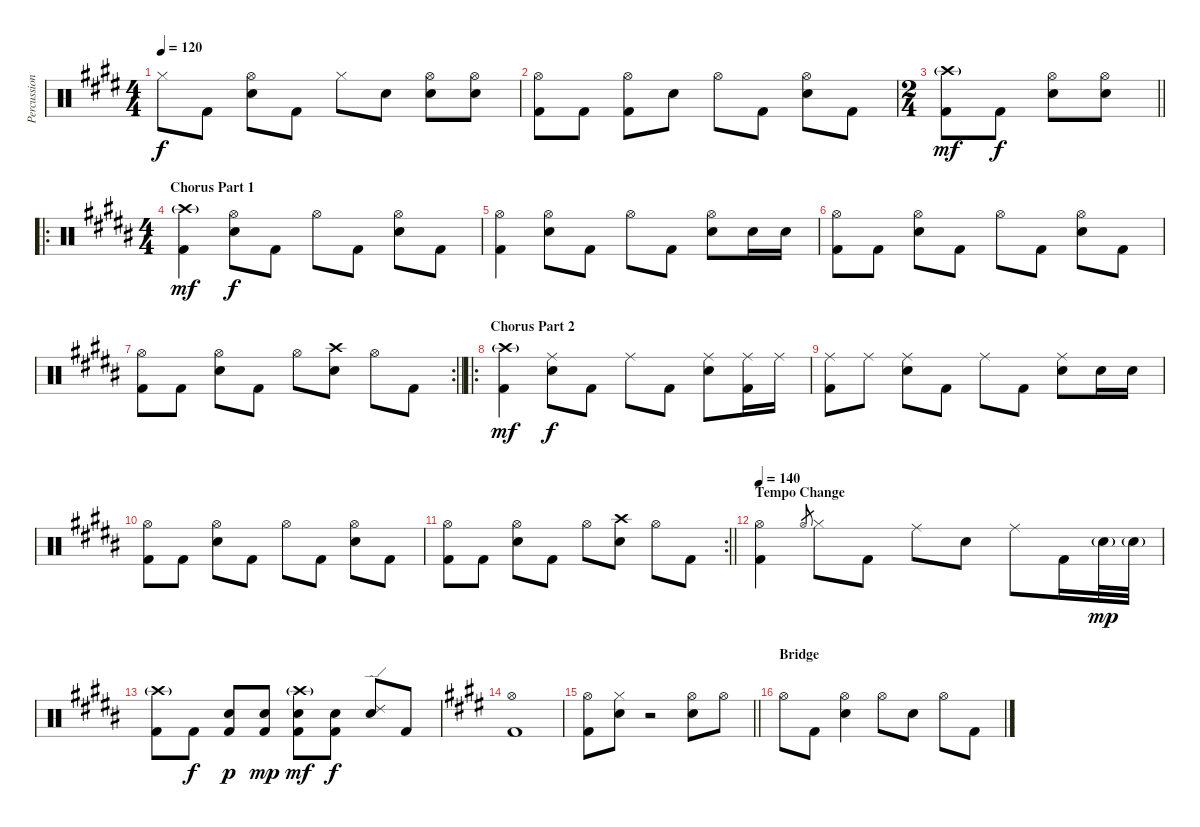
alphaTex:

\track ("Percussion" "Percussion") {instrument percussion}
\staff {score}
\articulation defaults
\ts (4 4)
\tempo 120
\clef neutral
\ks e "Hi-Hat (closed)".8{dy f} "Kick (hit) 2".8
("Hi-Hat (open)" "Snare (hit) 2").8 "Kick (hit) 2".8 "Hi-Hat (closed)".8 "Snare (hit) 2".8 ("Hi-Hat (open)" "Snare (hit) 2").8 ("Hi-Hat (open)" "Snare (hit) 2").8 |
("Hi-Hat (open)" "Kick (hit) 2").8 "Kick (hit) 2".8 ("Hi-Hat (open)" "Kick (hit) 2").8 "Snare (hit) 2".8 "Hi-Hat (open)".8 "Kick (hit) 2".8 ("Hi-Hat (open)" "Snare (hit) 2").8 "Kick (hit) 2".8 |
\ts (2 4)
\barLineRight lightlight
("Crash high (hit)"{g} "Kick (hit) 2").8{dy mf} "Kick (hit) 2".8{dy f} ("Hi-Hat (open)" "Snare (hit) 2").8 ("Hi-Hat (open)" "Snare (hit) 2").8 |
\ro
\ts (4 4)
\section ("" "Chorus Part 1")
\ks b
("Crash high (hit)"{g} "Kick (hit) 2").4{dy mf} ("Hi-Hat (open)" "Snare (hit) 2").8{dy f} "Kick (hit) 2".8 "Hi-Hat (open)".8 "Kick (hit) 2".8 ("Hi-Hat (open)" "Snare (hit) 2").8 "Kick (hit) 2".8 |
("Hi-Hat (open)" "Kick (hit) 2").4 ("Hi-Hat (open)" "Snare (hit) 2").8 "Kick (hit) 2".8 "Hi-Hat (open)".8 "Kick (hit) 2".8 ("Hi-Hat (open)" "Snare (hit) 2").8 "Snare (hit) 2".16 "Snare (hit) 2".16 |
("Hi-Hat (open)" "Kick (hit) 2").8 "Kick (hit) 2".8 ("Hi-Hat (open)" "Snare (hit) 2").8 "Kick (hit) 2".8 "Hi-Hat (open)".8 "Kick (hit) 2".8 ("Hi-Hat (open)" "Snare (hit) 2").8 "Kick (hit) 2".8 |
\rc 2
\barLineRight lightlight
("Hi-Hat (open)" "Kick (hit) 2").8 "Kick (hit) 2".8 ("Hi-Hat (open)" "Snare (hit) 2").8 "Kick (hit) 2".8 "Hi-Hat (open)".8 ("Crash high (hit)" "Snare (hit) 2").8 "Hi-Hat (open)".8 "Kick (hit) 2".8 |
\ro
\section ("" "Chorus Part 2")
("Crash high (hit)"{g} "Kick (hit) 2").4{dy mf} ("Ride (middle)" "Snare (hit) 2").8{dy f} "Kick (hit) 2".8 "Ride (middle)".8 "Kick (hit) 2".8 ("Ride (middle)" "Snare (hit) 2").8 ("Ride (middle)" "Kick (hit) 2").16 "Ride (middle)".16 |
("Ride (middle)" "Kick (hit) 2").8 "Ride (middle)".8 ("Ride (middle)" "Snare (hit) 2").8 "Kick (hit) 2".8 "Ride (middle)".8 "Kick (hit) 2".8 ("Ride (middle)" "Snare (hit) 2").8 "Snare (hit) 2".16 "Snare (hit) 2".16 |
("Hi-Hat (open)" "Kick (hit) 2").8 "Kick (hit) 2".8 ("Hi-Hat (open)" "Snare (hit) 2").8 "Kick (hit) 2".8 "Hi-Hat (open)".8 "Kick (hit) 2".8 ("Hi-Hat (open)" "Snare (hit) 2").8 "Kick (hit) 2".8 |
\rc 2
\barLineRight lightlight
("Hi-Hat (open)" "Kick (hit) 2").8 "Kick (hit) 2".8 ("Hi-Hat (open)" "Snare (hit) 2").8 "Kick (hit) 2".8 "Hi-Hat (open)".8 ("Crash high (hit)" "Snare (hit) 2").8 "Hi-Hat (open)".8 "Kick (hit) 2".8 |
\section ("" "Tempo Change")
\tempo 140
("Hi-Hat (open)" "Kick (hit) 2").4 "Hi-Hat (open)".8{gr} "Hi-Hat (closed)".8 "Kick (hit) 2".8 "Ride (middle)".8 "Snare (hit) 2".8 "Ride (middle)".8 "Kick (hit) 2".16 "Snare (hit) 2"{g}.32{dy mp} "Snare (hit) 2"{g}.32 |
("Crash high (hit)"{g} "Kick (hit) 2").8 "Kick (hit) 2".8{dy f} ("Snare (hit) 2" "Kick (hit) 2").8{dy p} ("Snare (hit) 2" "Kick (hit) 2").8{dy mp} ("Crash high (hit)"{g} "Snare (hit) 2" "Kick (hit) 2").8{dy mf} ("Snare (hit) 2" "Kick (hit) 2").8{dy f} ("Ride (edge) 2" "Snare (hit) 2").8 "Kick (hit) 2".8 |
\ks e
("Hi-Hat (open)" "Kick (hit) 2").1 |
\barLineRight lightlight
("Hi-Hat (open)" "Kick (hit) 2").8 ("Hi-Hat (closed)" "Snare (hit) 2").8 r.2 ("Hi-Hat (open)" "Snare (hit) 2").8 "Hi-Hat (open)".8 |
\section ("" "Bridge")
"Hi-Hat (open)".8 "Kick (hit) 2".8 ("Hi-Hat (open)" "Snare (hit) 2").4 "Hi-Hat (open)".8 "Snare (hit) 2".8 "Hi-Hat (open)".8 "Kick (hit) 2".8
